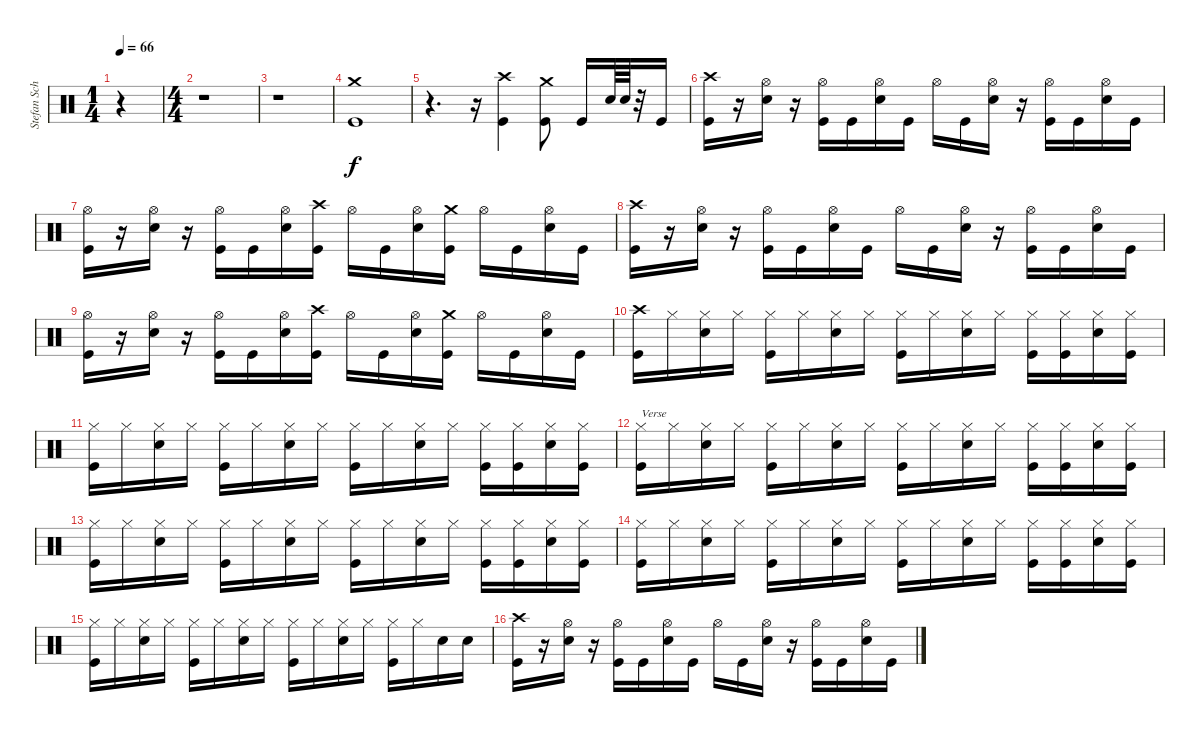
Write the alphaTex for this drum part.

\track ("Stefan Schwarzmann" "Stefan Sch") {instrument percussion}
\staff {score}
\articulation defaults
\ts (1 4)
\tempo 66
\clef neutral
\ks c
r.4{dy f} |
\ts (4 4)
r.1 |
r.1 |
("Kick (hit)" "Crash medium (hit)").1 |
r.4{d} r.16 ("Kick (hit)" "Crash high (hit)").4 ("Kick (hit)" "Crash medium (hit)").8 "Kick (hit)".16 "Snare (hit) 2".64 "Snare (hit) 2".64 r.32 "Kick (hit)".16 |
("Kick (hit)" "Crash high (hit)").16 r.16 ("Snare (hit) 2" "Hi-Hat (open)").16 r.16 ("Kick (hit)" "Hi-Hat (open)").16 "Kick (hit)".16 ("Snare (hit) 2" "Hi-Hat (open)").16 "Kick (hit)".16 "Hi-Hat (open)".16 "Kick (hit)".16 ("Snare (hit) 2" "Hi-Hat (open)").16 r.16 ("Kick (hit)" "Hi-Hat (open)").16 "Kick (hit)".16 ("Snare (hit) 2" "Hi-Hat (open)").16 "Kick (hit)".16 |
("Kick (hit)" "Hi-Hat (open)").16 r.16 ("Snare (hit) 2" "Hi-Hat (open)").16 r.16 ("Kick (hit)" "Hi-Hat (open)").16 "Kick (hit)".16 ("Snare (hit) 2" "Hi-Hat (open)").16 ("Kick (hit)" "Crash high (hit)").16 "Hi-Hat (open)".16 "Kick (hit)".16 ("Snare (hit) 2" "Hi-Hat (open)").16 ("Kick (hit)" "Crash medium (hit)").16 "Hi-Hat (open)".16 "Kick (hit)".16 ("Snare (hit) 2" "Hi-Hat (open)").16 "Kick (hit)".16 |
("Kick (hit)" "Crash high (hit)").16 r.16 ("Snare (hit) 2" "Hi-Hat (open)").16 r.16 ("Kick (hit)" "Hi-Hat (open)").16 "Kick (hit)".16 ("Snare (hit) 2" "Hi-Hat (open)").16 "Kick (hit)".16 "Hi-Hat (open)".16 "Kick (hit)".16 ("Snare (hit) 2" "Hi-Hat (open)").16 r.16 ("Kick (hit)" "Hi-Hat (open)").16 "Kick (hit)".16 ("Snare (hit) 2" "Hi-Hat (open)").16 "Kick (hit)".16 |
("Kick (hit)" "Hi-Hat (open)").16 r.16 ("Snare (hit) 2" "Hi-Hat (open)").16 r.16 ("Kick (hit)" "Hi-Hat (open)").16 "Kick (hit)".16 ("Snare (hit) 2" "Hi-Hat (open)").16 ("Kick (hit)" "Crash high (hit)").16 "Hi-Hat (open)".16 "Kick (hit)".16 ("Snare (hit) 2" "Hi-Hat (open)").16 ("Kick (hit)" "Crash medium (hit)").16 "Hi-Hat (open)".16 "Kick (hit)".16 ("Snare (hit) 2" "Hi-Hat (open)").16 "Kick (hit)".16 |
("Kick (hit)" "Crash high (hit)").16 "Hi-Hat (closed)".16 ("Hi-Hat (closed)" "Snare (hit) 2").16 "Hi-Hat (closed)".16 ("Hi-Hat (closed)" "Kick (hit)").16 "Hi-Hat (closed)".16 ("Snare (hit) 2" "Hi-Hat (closed)").16 "Hi-Hat (closed)".16 ("Hi-Hat (closed)" "Kick (hit)").16 "Hi-Hat (closed)".16 ("Snare (hit) 2" "Hi-Hat (closed)").16 "Hi-Hat (closed)".16 ("Kick (hit)" "Hi-Hat (closed)").16 ("Kick (hit)" "Hi-Hat (closed)").16 ("Snare (hit) 2" "Hi-Hat (closed)").16 ("Kick (hit)" "Hi-Hat (closed)").16 |
("Kick (hit)" "Hi-Hat (closed)").16 "Hi-Hat (closed)".16 ("Hi-Hat (closed)" "Snare (hit) 2").16 "Hi-Hat (closed)".16 ("Hi-Hat (closed)" "Kick (hit)").16 "Hi-Hat (closed)".16 ("Snare (hit) 2" "Hi-Hat (closed)").16 "Hi-Hat (closed)".16 ("Hi-Hat (closed)" "Kick (hit)").16 "Hi-Hat (closed)".16 ("Snare (hit) 2" "Hi-Hat (closed)").16 "Hi-Hat (closed)".16 ("Kick (hit)" "Hi-Hat (closed)").16 ("Kick (hit)" "Hi-Hat (closed)").16 ("Snare (hit) 2" "Hi-Hat (closed)").16 ("Kick (hit)" "Hi-Hat (closed)").16 |
("Kick (hit)" "Hi-Hat (closed)").16{txt "Verse"} "Hi-Hat (closed)".16 ("Hi-Hat (closed)" "Snare (hit) 2").16 "Hi-Hat (closed)".16 ("Hi-Hat (closed)" "Kick (hit)").16 "Hi-Hat (closed)".16 ("Snare (hit) 2" "Hi-Hat (closed)").16 "Hi-Hat (closed)".16 ("Hi-Hat (closed)" "Kick (hit)").16 "Hi-Hat (closed)".16 ("Snare (hit) 2" "Hi-Hat (closed)").16 "Hi-Hat (closed)".16 ("Kick (hit)" "Hi-Hat (closed)").16 ("Kick (hit)" "Hi-Hat (closed)").16 ("Snare (hit) 2" "Hi-Hat (closed)").16 ("Kick (hit)" "Hi-Hat (closed)").16 |
("Kick (hit)" "Hi-Hat (closed)").16 "Hi-Hat (closed)".16 ("Hi-Hat (closed)" "Snare (hit) 2").16 "Hi-Hat (closed)".16 ("Hi-Hat (closed)" "Kick (hit)").16 "Hi-Hat (closed)".16 ("Snare (hit) 2" "Hi-Hat (closed)").16 "Hi-Hat (closed)".16 ("Hi-Hat (closed)" "Kick (hit)").16 "Hi-Hat (closed)".16 ("Snare (hit) 2" "Hi-Hat (closed)").16 "Hi-Hat (closed)".16 ("Kick (hit)" "Hi-Hat (closed)").16 ("Kick (hit)" "Hi-Hat (closed)").16 ("Snare (hit) 2" "Hi-Hat (closed)").16 ("Kick (hit)" "Hi-Hat (closed)").16 |
("Kick (hit)" "Hi-Hat (closed)").16 "Hi-Hat (closed)".16 ("Hi-Hat (closed)" "Snare (hit) 2").16 "Hi-Hat (closed)".16 ("Hi-Hat (closed)" "Kick (hit)").16 "Hi-Hat (closed)".16 ("Snare (hit) 2" "Hi-Hat (closed)").16 "Hi-Hat (closed)".16 ("Hi-Hat (closed)" "Kick (hit)").16 "Hi-Hat (closed)".16 ("Snare (hit) 2" "Hi-Hat (closed)").16 "Hi-Hat (closed)".16 ("Kick (hit)" "Hi-Hat (closed)").16 ("Kick (hit)" "Hi-Hat (closed)").16 ("Snare (hit) 2" "Hi-Hat (closed)").16 ("Kick (hit)" "Hi-Hat (closed)").16 |
("Kick (hit)" "Hi-Hat (closed)").16 "Hi-Hat (closed)".16 ("Hi-Hat (closed)" "Snare (hit) 2").16 "Hi-Hat (closed)".16 ("Hi-Hat (closed)" "Kick (hit)").16 "Hi-Hat (closed)".16 ("Snare (hit) 2" "Hi-Hat (closed)").16 "Hi-Hat (closed)".16 ("Hi-Hat (closed)" "Kick (hit)").16 "Hi-Hat (closed)".16 ("Snare (hit) 2" "Hi-Hat (closed)").16 "Hi-Hat (closed)".16 ("Hi-Hat (closed)" "Kick (hit)").16 "Hi-Hat (closed)".16 "Snare (hit) 2".16 "Snare (hit) 2".16 |
("Kick (hit)" "Crash high (hit)").16 r.16 ("Snare (hit) 2" "Hi-Hat (open)").16 r.16 ("Kick (hit)" "Hi-Hat (open)").16 "Kick (hit)".16 ("Snare (hit) 2" "Hi-Hat (open)").16 "Kick (hit)".16 "Hi-Hat (open)".16 "Kick (hit)".16 ("Snare (hit) 2" "Hi-Hat (open)").16 r.16 ("Kick (hit)" "Hi-Hat (open)").16 "Kick (hit)".16 ("Snare (hit) 2" "Hi-Hat (open)").16 "Kick (hit)".16
